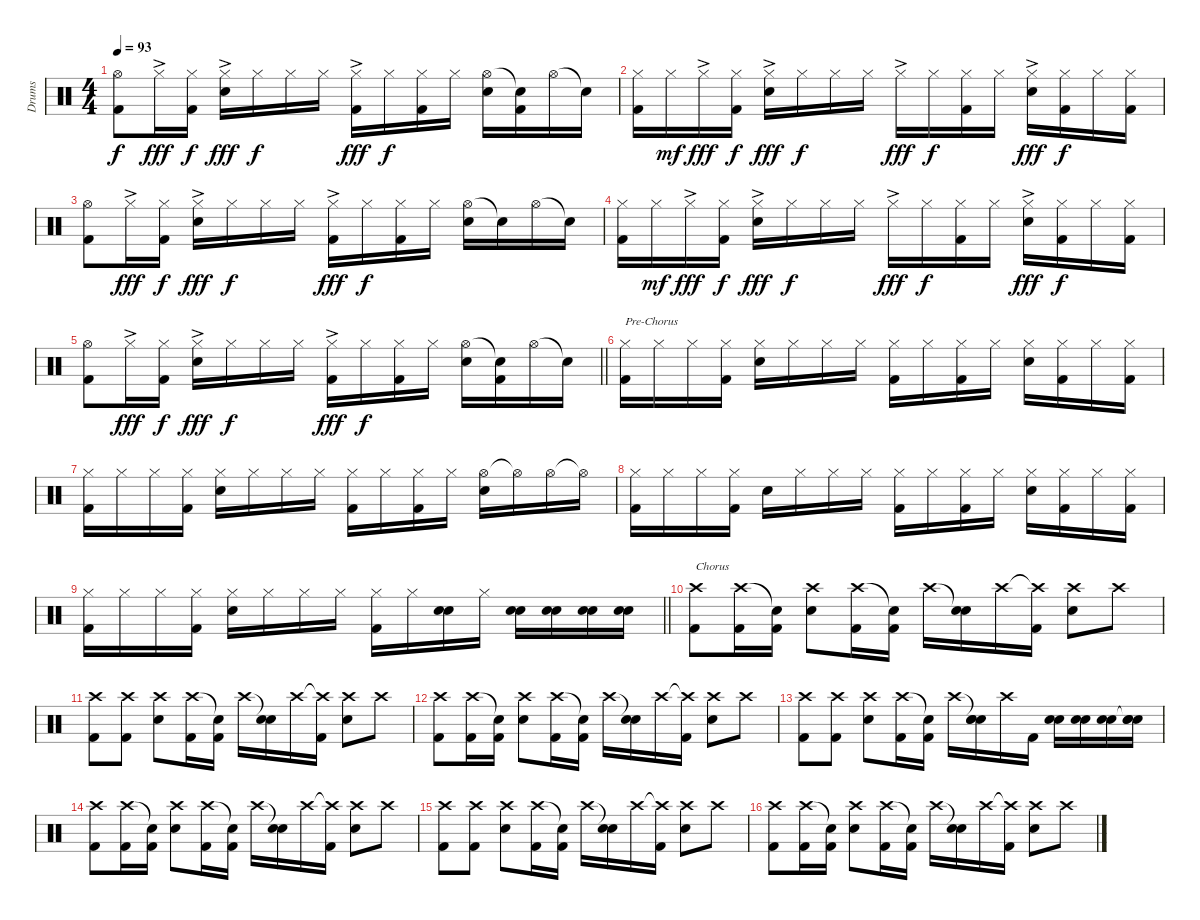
\track ("Drums" "Drums") {instrument percussion}
\staff {score}
\articulation defaults
\ts (4 4)
\tempo 93
\clef neutral
\ks c
("Hi-Hat (open)" "Kick (hit) 2").8{dy f} "Hi-Hat (closed)"{ac}.16{dy fff} ("Hi-Hat (closed)" "Kick (hit) 2").16{dy f} ("Hi-Hat (closed)"{ac} "Electric Snare (hit)").16{dy fff} "Hi-Hat (closed)".16{dy f} "Hi-Hat (closed)".16 "Hi-Hat (closed)".16 ("Hi-Hat (closed)"{ac} "Kick (hit) 2").16{dy fff} "Hi-Hat (closed)".16{dy f} ("Hi-Hat (closed)" "Kick (hit) 2").16 "Hi-Hat (closed)".16 ("Hi-Hat (open)" "Electric Snare (hit)").16 ("Snare (hit)"{t} "Kick (hit) 2").16 "Hi-Hat (open)".16 "Snare (hit)"{t}.16 |
("Hi-Hat (closed)" "Kick (hit) 2").16 "Hi-Hat (closed)".16{dy mf} "Hi-Hat (closed)"{ac}.16{dy fff} ("Hi-Hat (closed)" "Kick (hit) 2").16{dy f} ("Hi-Hat (closed)"{ac} "Electric Snare (hit)").16{dy fff} "Hi-Hat (closed)".16{dy f} "Hi-Hat (closed)".16 "Hi-Hat (closed)".16 "Hi-Hat (closed)"{ac}.16{dy fff} "Hi-Hat (closed)".16{dy f} ("Hi-Hat (closed)" "Kick (hit) 2").16 "Hi-Hat (closed)".16 ("Hi-Hat (closed)"{ac} "Electric Snare (hit)").16{dy fff} ("Hi-Hat (closed)" "Kick (hit) 2").16{dy f} "Hi-Hat (closed)".16 ("Hi-Hat (closed)" "Kick (hit) 2").16 |
("Hi-Hat (open)" "Kick (hit) 2").8 "Hi-Hat (closed)"{ac}.16{dy fff} ("Hi-Hat (closed)" "Kick (hit) 2").16{dy f} ("Hi-Hat (closed)"{ac} "Electric Snare (hit)").16{dy fff} "Hi-Hat (closed)".16{dy f} "Hi-Hat (closed)".16 "Hi-Hat (closed)".16 ("Hi-Hat (closed)"{ac} "Kick (hit) 2").16{dy fff} "Hi-Hat (closed)".16{dy f} ("Hi-Hat (closed)" "Kick (hit) 2").16 "Hi-Hat (closed)".16 ("Hi-Hat (open)" "Electric Snare (hit)").16 "Snare (hit)"{t}.16 "Hi-Hat (open)".16 "Snare (hit)"{t}.16 |
("Hi-Hat (closed)" "Kick (hit) 2").16 "Hi-Hat (closed)".16{dy mf} "Hi-Hat (closed)"{ac}.16{dy fff} ("Hi-Hat (closed)" "Kick (hit) 2").16{dy f} ("Hi-Hat (closed)"{ac} "Electric Snare (hit)").16{dy fff} "Hi-Hat (closed)".16{dy f} "Hi-Hat (closed)".16 "Hi-Hat (closed)".16 "Hi-Hat (closed)"{ac}.16{dy fff} "Hi-Hat (closed)".16{dy f} ("Hi-Hat (closed)" "Kick (hit) 2").16 "Hi-Hat (closed)".16 ("Hi-Hat (closed)"{ac} "Electric Snare (hit)").16{dy fff} ("Hi-Hat (closed)" "Kick (hit) 2").16{dy f} "Hi-Hat (closed)".16 ("Hi-Hat (closed)" "Kick (hit) 2").16 |
\barLineRight lightlight
("Hi-Hat (open)" "Kick (hit) 2").8 "Hi-Hat (closed)"{ac}.16{dy fff} ("Hi-Hat (closed)" "Kick (hit) 2").16{dy f} ("Hi-Hat (closed)"{ac} "Electric Snare (hit)").16{dy fff} "Hi-Hat (closed)".16{dy f} "Hi-Hat (closed)".16 "Hi-Hat (closed)".16 ("Hi-Hat (closed)"{ac} "Kick (hit) 2").16{dy fff} "Hi-Hat (closed)".16{dy f} ("Hi-Hat (closed)" "Kick (hit) 2").16 "Hi-Hat (closed)".16 ("Hi-Hat (open)" "Electric Snare (hit)").16 ("Snare (hit)"{t} "Kick (hit) 2").16 "Hi-Hat (open)".16 "Snare (hit)"{t}.16 |
("Hi-Hat (closed)" "Kick (hit) 2").16{txt "Pre-Chorus"} "Hi-Hat (closed)".16 "Hi-Hat (closed)".16 ("Hi-Hat (closed)" "Kick (hit) 2").16 ("Hi-Hat (closed)" "Electric Snare (hit)").16 "Hi-Hat (closed)".16 "Hi-Hat (closed)".16 "Hi-Hat (closed)".16 ("Hi-Hat (closed)" "Kick (hit) 2").16 "Hi-Hat (closed)".16 ("Hi-Hat (closed)" "Kick (hit) 2").16 "Hi-Hat (closed)".16 ("Hi-Hat (closed)" "Electric Snare (hit)").16 ("Hi-Hat (closed)" "Kick (hit) 2").16 "Hi-Hat (closed)".16 ("Hi-Hat (closed)" "Kick (hit) 2").16 |
("Hi-Hat (closed)" "Kick (hit) 2").16 "Hi-Hat (closed)".16 "Hi-Hat (closed)".16 ("Hi-Hat (closed)" "Kick (hit) 2").16 ("Hi-Hat (closed)" "Electric Snare (hit)").16 "Hi-Hat (closed)".16 "Hi-Hat (closed)".16 "Hi-Hat (closed)".16 ("Hi-Hat (closed)" "Kick (hit) 2").16 "Hi-Hat (closed)".16 ("Hi-Hat (closed)" "Kick (hit) 2").16 "Hi-Hat (closed)".16 ("Hi-Hat (open)" "Electric Snare (hit)").16 "Hi-Hat (open)"{t}.16 "Hi-Hat (open)".16 "Hi-Hat (open)"{t}.16 |
("Hi-Hat (closed)" "Kick (hit) 2").16 "Hi-Hat (closed)".16 "Hi-Hat (closed)".16 ("Hi-Hat (closed)" "Kick (hit) 2").16 "Electric Snare (hit)".16 "Hi-Hat (closed)".16 "Hi-Hat (closed)".16 "Hi-Hat (closed)".16 ("Hi-Hat (closed)" "Kick (hit) 2").16 "Hi-Hat (closed)".16 ("Hi-Hat (closed)" "Kick (hit) 2").16 "Hi-Hat (closed)".16 ("Hi-Hat (closed)" "Electric Snare (hit)").16 ("Hi-Hat (closed)" "Kick (hit) 2").16 "Hi-Hat (closed)".16 ("Hi-Hat (closed)" "Kick (hit) 2").16 |
\barLineRight lightlight
("Hi-Hat (closed)" "Kick (hit) 2").16 "Hi-Hat (closed)".16 "Hi-Hat (closed)".16 ("Hi-Hat (closed)" "Kick (hit) 2").16 ("Hi-Hat (closed)" "Electric Snare (hit)").16 "Hi-Hat (closed)".16 "Hi-Hat (closed)".16 "Hi-Hat (closed)".16 ("Hi-Hat (closed)" "Kick (hit) 2").16 "Hi-Hat (closed)".16 ("Electric Snare (hit)" "Electric Snare (hit)").16 "Hi-Hat (closed)".16 ("Electric Snare (hit)" "Electric Snare (hit)").16 ("Electric Snare (hit)" "Electric Snare (hit)").16 ("Electric Snare (hit)" "Electric Snare (hit)").16 ("Electric Snare (hit)" "Electric Snare (hit)").16 |
("Crash high (hit)" "Kick (hit) 2").8{txt "Chorus"} ("Crash high (hit)" "Kick (hit) 2").16 ("Snare (hit)"{t} "Kick (hit) 2").16 ("Crash high (hit)" "Electric Snare (hit)").8 ("Crash high (hit)" "Kick (hit) 2").16 ("Snare (hit)"{t} "Kick (hit) 2").16 "Crash high (hit)".16 ("Snare (hit)"{t} "Electric Snare (hit)").16 "Crash high (hit)".16 ("Crash high (hit)"{t} "Kick (hit) 2").16 ("Crash high (hit)" "Electric Snare (hit)").8 "Crash high (hit)".8 |
("Crash high (hit)" "Kick (hit) 2").8 ("Crash high (hit)" "Kick (hit) 2").8 ("Crash high (hit)" "Electric Snare (hit)").8 ("Crash high (hit)" "Kick (hit) 2").16 ("Snare (hit)"{t} "Kick (hit) 2").16 "Crash high (hit)".16 ("Snare (hit)"{t} "Electric Snare (hit)").16 "Crash high (hit)".16 ("Crash high (hit)"{t} "Kick (hit) 2").16 ("Crash high (hit)" "Electric Snare (hit)").8 "Crash high (hit)".8 |
("Crash high (hit)" "Kick (hit) 2").8 ("Crash high (hit)" "Kick (hit) 2").16 ("Snare (hit)"{t} "Kick (hit) 2").16 ("Crash high (hit)" "Electric Snare (hit)").8 ("Crash high (hit)" "Kick (hit) 2").16 ("Snare (hit)"{t} "Kick (hit) 2").16 "Crash high (hit)".16 ("Snare (hit)"{t} "Electric Snare (hit)").16 "Crash high (hit)".16 ("Crash high (hit)"{t} "Kick (hit) 2").16 ("Crash high (hit)" "Electric Snare (hit)").8 "Crash high (hit)".8 |
("Crash high (hit)" "Kick (hit) 2").8 ("Crash high (hit)" "Kick (hit) 2").8 ("Crash high (hit)" "Electric Snare (hit)").8 ("Crash high (hit)" "Kick (hit) 2").16 ("Snare (hit)"{t} "Kick (hit) 2").16 "Crash high (hit)".16 ("Snare (hit)"{t} "Electric Snare (hit)" "Electric Snare (hit)").16 "Crash high (hit)".16 "Kick (hit) 2".16 ("Electric Snare (hit)" "Electric Snare (hit)").16 ("Electric Snare (hit)" "Electric Snare (hit)").16 ("Electric Snare (hit)" "Electric Snare (hit)").16 ("Snare (hit)"{t} "Electric Snare (hit)" "Electric Snare (hit)").16 |
("Crash high (hit)" "Kick (hit) 2").8 ("Crash high (hit)" "Kick (hit) 2").16 ("Snare (hit)"{t} "Kick (hit) 2").16 ("Crash high (hit)" "Electric Snare (hit)").8 ("Crash high (hit)" "Kick (hit) 2").16 ("Snare (hit)"{t} "Kick (hit) 2").16 "Crash high (hit)".16 ("Snare (hit)"{t} "Electric Snare (hit)").16 "Crash high (hit)".16 ("Crash high (hit)"{t} "Kick (hit) 2").16 ("Crash high (hit)" "Electric Snare (hit)").8 "Crash high (hit)".8 |
("Crash high (hit)" "Kick (hit) 2").8 ("Crash high (hit)" "Kick (hit) 2").8 ("Crash high (hit)" "Electric Snare (hit)").8 ("Crash high (hit)" "Kick (hit) 2").16 ("Snare (hit)"{t} "Kick (hit) 2").16 "Crash high (hit)".16 ("Snare (hit)"{t} "Electric Snare (hit)").16 "Crash high (hit)".16 ("Crash high (hit)"{t} "Kick (hit) 2").16 ("Crash high (hit)" "Electric Snare (hit)").8 "Crash high (hit)".8 |
("Crash high (hit)" "Kick (hit) 2").8 ("Crash high (hit)" "Kick (hit) 2").16 ("Snare (hit)"{t} "Kick (hit) 2").16 ("Crash high (hit)" "Electric Snare (hit)").8 ("Crash high (hit)" "Kick (hit) 2").16 ("Snare (hit)"{t} "Kick (hit) 2").16 "Crash high (hit)".16 ("Snare (hit)"{t} "Electric Snare (hit)").16 "Crash high (hit)".16 ("Crash high (hit)"{t} "Kick (hit) 2").16 ("Crash high (hit)" "Electric Snare (hit)").8 "Crash high (hit)".8
